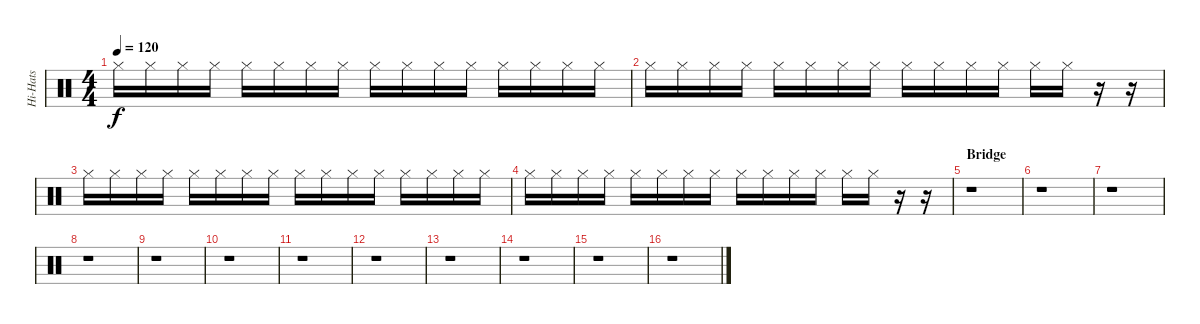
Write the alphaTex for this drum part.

\track ("Hi-Hats" "Hi-Hats") {instrument percussion}
\staff {score}
\articulation defaults
\ts (4 4)
\tempo 120
\clef neutral
\ks c "Hi-Hat (closed)".16{dy f} "Hi-Hat (closed)".16 "Hi-Hat (closed)".16 "Hi-Hat (closed)".16 "Hi-Hat (closed)".16 "Hi-Hat (closed)".16 "Hi-Hat (closed)".16 "Hi-Hat (closed)".16 "Hi-Hat (closed)".16 "Hi-Hat (closed)".16 "Hi-Hat (closed)".16 "Hi-Hat (closed)".16 "Hi-Hat (closed)".16 "Hi-Hat (closed)".16 "Hi-Hat (closed)".16 "Hi-Hat (closed)".16
|
"Hi-Hat (closed)".16 "Hi-Hat (closed)".16 "Hi-Hat (closed)".16 "Hi-Hat (closed)".16 "Hi-Hat (closed)".16 "Hi-Hat (closed)".16 "Hi-Hat (closed)".16 "Hi-Hat (closed)".16 "Hi-Hat (closed)".16 "Hi-Hat (closed)".16 "Hi-Hat (closed)".16 "Hi-Hat (closed)".16 "Hi-Hat (closed)".16 "Hi-Hat (closed)".16 r.16 r.16 |
"Hi-Hat (closed)".16 "Hi-Hat (closed)".16 "Hi-Hat (closed)".16 "Hi-Hat (closed)".16 "Hi-Hat (closed)".16 "Hi-Hat (closed)".16 "Hi-Hat (closed)".16 "Hi-Hat (closed)".16 "Hi-Hat (closed)".16 "Hi-Hat (closed)".16 "Hi-Hat (closed)".16 "Hi-Hat (closed)".16 "Hi-Hat (closed)".16 "Hi-Hat (closed)".16 "Hi-Hat (closed)".16 "Hi-Hat (closed)".16 |
"Hi-Hat (closed)".16 "Hi-Hat (closed)".16 "Hi-Hat (closed)".16 "Hi-Hat (closed)".16 "Hi-Hat (closed)".16 "Hi-Hat (closed)".16 "Hi-Hat (closed)".16 "Hi-Hat (closed)".16 "Hi-Hat (closed)".16 "Hi-Hat (closed)".16 "Hi-Hat (closed)".16 "Hi-Hat (closed)".16 "Hi-Hat (closed)".16 "Hi-Hat (closed)".16 r.16 r.16 |
\section ("" "Bridge")
r.1 |
r.1 |
r.1 |
r.1 |
r.1 |
r.1 |
r.1 |
r.1 |
r.1 |
r.1 |
r.1 |
r.1
